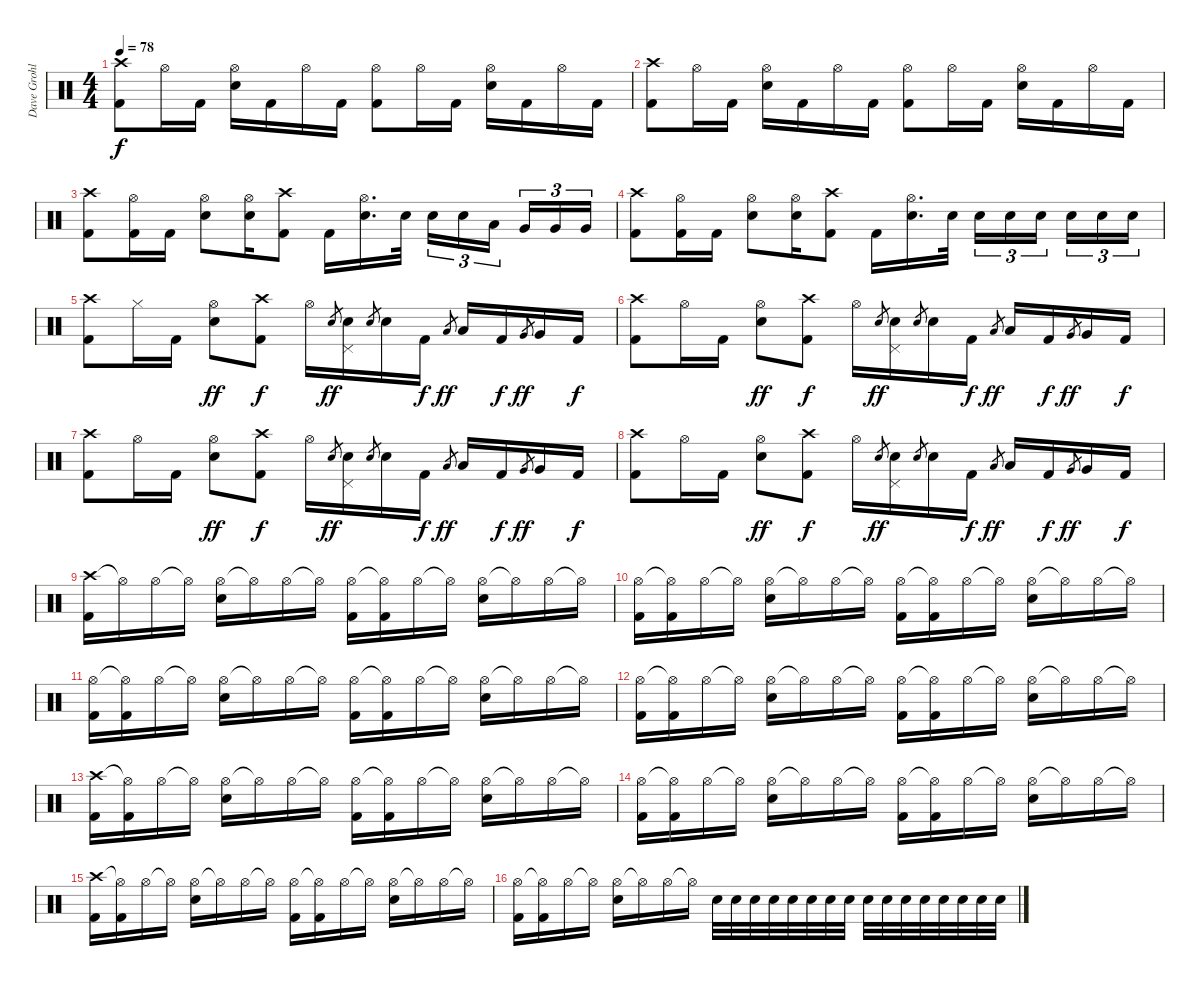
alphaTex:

\track ("Dave Grohl" "Dave Grohl") {instrument percussion}
\staff {score}
\articulation defaults
\ts (4 4)
\tempo 78
\clef neutral
\ks c
("Crash high (hit)" "Kick (hit) 2").8{dy f} "Hi-Hat (open)".16 "Kick (hit) 2".16 ("Hi-Hat (open)" "Snare (hit) 2").16 "Kick (hit) 2".16 "Hi-Hat (open)".16 "Kick (hit) 2".16 ("Hi-Hat (open)" "Kick (hit) 2").8 "Hi-Hat (open)".16 "Kick (hit) 2".16 ("Hi-Hat (open)" "Snare (hit) 2").16 "Kick (hit) 2".16 "Hi-Hat (open)".16 "Kick (hit) 2".16 |
("Crash high (hit)" "Kick (hit) 2").8 "Hi-Hat (open)".16 "Kick (hit) 2".16 ("Hi-Hat (open)" "Snare (hit) 2").16 "Kick (hit) 2".16 "Hi-Hat (open)".16 "Kick (hit) 2".16 ("Hi-Hat (open)" "Kick (hit) 2").8 "Hi-Hat (open)".16 "Kick (hit) 2".16 ("Hi-Hat (open)" "Snare (hit) 2").16 "Kick (hit) 2".16 "Hi-Hat (open)".16 "Kick (hit) 2".16 |
("Crash high (hit)" "Kick (hit) 2").8 ("Hi-Hat (open)" "Kick (hit) 2").16 "Kick (hit) 2".16 ("Hi-Hat (open)" "Snare (hit) 2").8 ("Hi-Hat (open)" "Snare (hit) 2").16 ("Crash high (hit)" "Kick (hit) 2").8 "Kick (hit) 2".16 ("Hi-Hat (open)" "Snare (hit) 2").16{d} "Snare (hit) 2".32 "Snare (hit) 2".16{tu (3 2)} "Snare (hit) 2".16{tu (3 2)} "Low Tom (hit)".16{tu (3 2) beam splitsecondary} "Very Low Tom (hit)".16{tu (3 2)} "Very Low Tom (hit)".16{tu (3 2)} "Very Low Tom (hit)".16{tu (3 2)} |
("Crash high (hit)" "Kick (hit) 2").8 ("Hi-Hat (open)" "Kick (hit) 2").16 "Kick (hit) 2".16 ("Hi-Hat (open)" "Snare (hit) 2").8 ("Hi-Hat (open)" "Snare (hit) 2").16 ("Crash high (hit)" "Kick (hit) 2").8 "Kick (hit) 2".16 ("Hi-Hat (open)" "Snare (hit) 2").16{d} "Snare (hit) 2".32 "Snare (hit) 2".16{tu (3 2)} "Snare (hit) 2".16{tu (3 2)} "Snare (hit) 2".16{tu (3 2) beam splitsecondary} "Snare (hit) 2".16{tu (3 2)} "Snare (hit) 2".16{tu (3 2)} "Snare (hit) 2".16{tu (3 2)} |
("Crash high (hit)" "Kick (hit) 2").8 "Hi-Hat (closed)".16 "Kick (hit) 2".16 ("Hi-Hat (open)" "Snare (hit) 2").8{dy ff} ("Crash high (hit)" "Kick (hit) 2").8{dy f} "Hi-Hat (open)".16 "Snare (hit) 2".8{gr dy ff} ("Pedal Hi-Hat (hit)" "Snare (hit) 2").16 "Snare (hit) 2".8{gr} "Snare (hit) 2".16 "Kick (hit) 2".16{dy f} "Low Tom (hit)".8{gr dy ff} "Low Tom (hit)".16 "Kick (hit) 2".16{dy f} "Very Low Tom (hit)".8{gr dy ff} "Very Low Tom (hit)".16 "Kick (hit) 2".16{dy f} |
("Crash high (hit)" "Kick (hit) 2").8 "Hi-Hat (open)".16 "Kick (hit) 2".16 ("Hi-Hat (open)" "Snare (hit) 2").8{dy ff} ("Crash high (hit)" "Kick (hit) 2").8{dy f} "Hi-Hat (open)".16 "Snare (hit) 2".8{gr dy ff} ("Pedal Hi-Hat (hit)" "Snare (hit) 2").16 "Snare (hit) 2".8{gr} "Snare (hit) 2".16 "Kick (hit) 2".16{dy f} "Low Tom (hit)".8{gr dy ff} "Low Tom (hit)".16 "Kick (hit) 2".16{dy f} "Very Low Tom (hit)".8{gr dy ff} "Very Low Tom (hit)".16 "Kick (hit) 2".16{dy f} |
("Crash high (hit)" "Kick (hit) 2").8 "Hi-Hat (open)".16 "Kick (hit) 2".16 ("Hi-Hat (open)" "Snare (hit) 2").8{dy ff} ("Crash high (hit)" "Kick (hit) 2").8{dy f} "Hi-Hat (open)".16 "Snare (hit) 2".8{gr dy ff} ("Pedal Hi-Hat (hit)" "Snare (hit) 2").16 "Snare (hit) 2".8{gr} "Snare (hit) 2".16 "Kick (hit) 2".16{dy f} "Low Tom (hit)".8{gr dy ff} "Low Tom (hit)".16 "Kick (hit) 2".16{dy f} "Very Low Tom (hit)".8{gr dy ff} "Very Low Tom (hit)".16 "Kick (hit) 2".16{dy f} |
("Crash high (hit)" "Kick (hit) 2").8 "Hi-Hat (open)".16 "Kick (hit) 2".16 ("Hi-Hat (open)" "Snare (hit) 2").8{dy ff} ("Crash high (hit)" "Kick (hit) 2").8{dy f} "Hi-Hat (open)".16 "Snare (hit) 2".8{gr dy ff} ("Pedal Hi-Hat (hit)" "Snare (hit) 2").16 "Snare (hit) 2".8{gr} "Snare (hit) 2".16 "Kick (hit) 2".16{dy f} "Low Tom (hit)".8{gr dy ff} "Low Tom (hit)".16 "Kick (hit) 2".16{dy f} "Very Low Tom (hit)".8{gr dy ff} "Very Low Tom (hit)".16 "Kick (hit) 2".16{dy f} |
("Crash high (hit)" "Kick (hit) 2").16 "Hi-Hat (open)"{t}.16 "Hi-Hat (open)".16 "Hi-Hat (open)"{t}.16 ("Hi-Hat (open)" "Snare (hit) 2").16 "Hi-Hat (open)"{t}.16 "Hi-Hat (open)".16 "Hi-Hat (open)"{t}.16 ("Hi-Hat (open)" "Kick (hit) 2").16 ("Hi-Hat (open)"{t} "Kick (hit) 2").16 "Hi-Hat (open)".16 "Hi-Hat (open)"{t}.16 ("Hi-Hat (open)" "Snare (hit) 2").16 "Hi-Hat (open)"{t}.16 "Hi-Hat (open)".16 "Hi-Hat (open)"{t}.16 |
("Hi-Hat (open)" "Kick (hit) 2").16 ("Hi-Hat (open)"{t} "Kick (hit) 2").16 "Hi-Hat (open)".16 "Hi-Hat (open)"{t}.16 ("Hi-Hat (open)" "Snare (hit) 2").16 "Hi-Hat (open)"{t}.16 "Hi-Hat (open)".16 "Hi-Hat (open)"{t}.16 ("Hi-Hat (open)" "Kick (hit) 2").16 ("Hi-Hat (open)"{t} "Kick (hit) 2").16 "Hi-Hat (open)".16 "Hi-Hat (open)"{t}.16 ("Hi-Hat (open)" "Snare (hit) 2").16 "Hi-Hat (open)"{t}.16 "Hi-Hat (open)".16 "Hi-Hat (open)"{t}.16 |
("Hi-Hat (open)" "Kick (hit) 2").16 ("Hi-Hat (open)"{t} "Kick (hit) 2").16 "Hi-Hat (open)".16 "Hi-Hat (open)"{t}.16 ("Hi-Hat (open)" "Snare (hit) 2").16 "Hi-Hat (open)"{t}.16 "Hi-Hat (open)".16 "Hi-Hat (open)"{t}.16 ("Hi-Hat (open)" "Kick (hit) 2").16 ("Hi-Hat (open)"{t} "Kick (hit) 2").16 "Hi-Hat (open)".16 "Hi-Hat (open)"{t}.16 ("Hi-Hat (open)" "Snare (hit) 2").16 "Hi-Hat (open)"{t}.16 "Hi-Hat (open)".16 "Hi-Hat (open)"{t}.16 |
("Hi-Hat (open)" "Kick (hit) 2").16 ("Hi-Hat (open)"{t} "Kick (hit) 2").16 "Hi-Hat (open)".16 "Hi-Hat (open)"{t}.16 ("Hi-Hat (open)" "Snare (hit) 2").16 "Hi-Hat (open)"{t}.16 "Hi-Hat (open)".16 "Hi-Hat (open)"{t}.16 ("Hi-Hat (open)" "Kick (hit) 2").16 ("Hi-Hat (open)"{t} "Kick (hit) 2").16 "Hi-Hat (open)".16 "Hi-Hat (open)"{t}.16 ("Hi-Hat (open)" "Snare (hit) 2").16 "Hi-Hat (open)"{t}.16 "Hi-Hat (open)".16 "Hi-Hat (open)"{t}.16 |
("Crash high (hit)" "Kick (hit) 2").16 ("Hi-Hat (open)"{t} "Kick (hit) 2").16 "Hi-Hat (open)".16 "Hi-Hat (open)"{t}.16 ("Hi-Hat (open)" "Snare (hit) 2").16 "Hi-Hat (open)"{t}.16 "Hi-Hat (open)".16 "Hi-Hat (open)"{t}.16 ("Hi-Hat (open)" "Kick (hit) 2").16 ("Hi-Hat (open)"{t} "Kick (hit) 2").16 "Hi-Hat (open)".16 "Hi-Hat (open)"{t}.16 ("Hi-Hat (open)" "Snare (hit) 2").16 "Hi-Hat (open)"{t}.16 "Hi-Hat (open)".16 "Hi-Hat (open)"{t}.16 |
("Hi-Hat (open)" "Kick (hit) 2").16 ("Hi-Hat (open)"{t} "Kick (hit) 2").16 "Hi-Hat (open)".16 "Hi-Hat (open)"{t}.16 ("Hi-Hat (open)" "Snare (hit) 2").16 "Hi-Hat (open)"{t}.16 "Hi-Hat (open)".16 "Hi-Hat (open)"{t}.16 ("Hi-Hat (open)" "Kick (hit) 2").16 ("Hi-Hat (open)"{t} "Kick (hit) 2").16 "Hi-Hat (open)".16 "Hi-Hat (open)"{t}.16 ("Hi-Hat (open)" "Snare (hit) 2").16 "Hi-Hat (open)"{t}.16 "Hi-Hat (open)".16 "Hi-Hat (open)"{t}.16 |
("Crash high (hit)" "Kick (hit) 2").16 ("Hi-Hat (open)"{t} "Kick (hit) 2").16 "Hi-Hat (open)".16 "Hi-Hat (open)"{t}.16 ("Hi-Hat (open)" "Snare (hit) 2").16 "Hi-Hat (open)"{t}.16 "Hi-Hat (open)".16 "Hi-Hat (open)"{t}.16 ("Hi-Hat (open)" "Kick (hit) 2").16 ("Hi-Hat (open)"{t} "Kick (hit) 2").16 "Hi-Hat (open)".16 "Hi-Hat (open)"{t}.16 ("Hi-Hat (open)" "Snare (hit) 2").16 "Hi-Hat (open)"{t}.16 "Hi-Hat (open)".16 "Hi-Hat (open)"{t}.16 |
("Hi-Hat (open)" "Kick (hit) 2").16 ("Hi-Hat (open)"{t} "Kick (hit) 2").16 "Hi-Hat (open)".16 "Hi-Hat (open)"{t}.16 ("Hi-Hat (open)" "Snare (hit) 2").16 "Hi-Hat (open)"{t}.16 "Hi-Hat (open)".16 "Hi-Hat (open)"{t}.16 "Snare (hit) 2".32 "Snare (hit) 2".32 "Snare (hit) 2".32 "Snare (hit) 2".32 "Snare (hit) 2".32 "Snare (hit) 2".32 "Snare (hit) 2".32 "Snare (hit) 2".32 "Snare (hit) 2".32 "Snare (hit) 2".32 "Snare (hit) 2".32 "Snare (hit) 2".32 "Snare (hit) 2".32 "Snare (hit) 2".32 "Snare (hit) 2".32 "Snare (hit) 2".32
